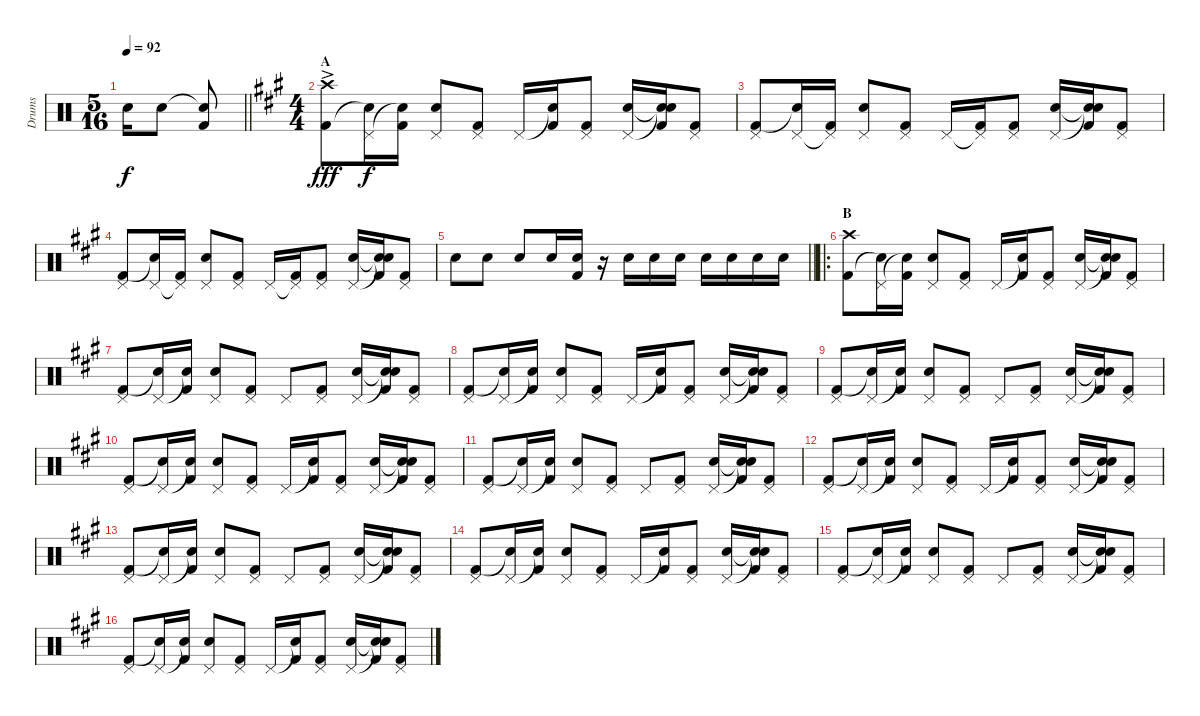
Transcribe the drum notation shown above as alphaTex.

\track ("Drums" "Drums") {instrument percussion}
\staff {score}
\articulation defaults
\ts (5 16)
\tempo 92
\clef neutral
\barLineRight lightlight
\ks c "Electric Snare (hit)".16{dy f} "Electric Snare (hit)".8
("Snare (hit)"{t} "Kick (hit) 2").8 |
\ts (4 4)
\section ("" "A")
\ks a
("Crash high (hit)"{ac} "Kick (hit) 2").8{dy fff} ("Pedal Hi-Hat (hit)" "Snare (hit)"{t}).16{dy f} ("Snare (hit)"{t} "Kick (hit) 2").16 ("Pedal Hi-Hat (hit)" "Electric Snare (hit)").8 ("Pedal Hi-Hat (hit)" "Kick (hit) 2").8 "Pedal Hi-Hat (hit)".16 ("Snare (hit)"{t} "Kick (hit) 2").16 ("Pedal Hi-Hat (hit)" "Kick (hit) 2").8 ("Pedal Hi-Hat (hit)" "Electric Snare (hit)").16 ("Snare (hit)"{t} "Snare (hit)"{t} "Kick (hit) 2").16 ("Pedal Hi-Hat (hit)" "Kick (hit) 2").8 |
("Pedal Hi-Hat (hit)" "Kick (hit) 2").8 ("Pedal Hi-Hat (hit)" "Snare (hit)"{t}).16 ("Pedal Hi-Hat (hit)"{t} "Kick (hit) 2").16 ("Pedal Hi-Hat (hit)" "Electric Snare (hit)").8 ("Pedal Hi-Hat (hit)" "Kick (hit) 2").8 "Pedal Hi-Hat (hit)".16 ("Pedal Hi-Hat (hit)"{t} "Kick (hit) 2").16 ("Pedal Hi-Hat (hit)" "Kick (hit) 2").8 ("Pedal Hi-Hat (hit)" "Electric Snare (hit)").16 ("Snare (hit)"{t} "Snare (hit)"{t} "Kick (hit) 2").16 ("Pedal Hi-Hat (hit)" "Kick (hit) 2").8 |
("Pedal Hi-Hat (hit)" "Kick (hit) 2").8 ("Pedal Hi-Hat (hit)" "Snare (hit)"{t}).16 ("Pedal Hi-Hat (hit)"{t} "Kick (hit) 2").16 ("Pedal Hi-Hat (hit)" "Electric Snare (hit)").8 ("Pedal Hi-Hat (hit)" "Kick (hit) 2").8 "Pedal Hi-Hat (hit)".16 ("Pedal Hi-Hat (hit)"{t} "Kick (hit) 2").16 ("Pedal Hi-Hat (hit)" "Kick (hit) 2").8 ("Pedal Hi-Hat (hit)" "Electric Snare (hit)").16 ("Snare (hit)"{t} "Snare (hit)"{t} "Kick (hit) 2").16 ("Pedal Hi-Hat (hit)" "Kick (hit) 2").8 |
\barLineRight lightlight "Electric Snare (hit)".8 "Electric Snare (hit)".8 "Electric Snare (hit)".8 "Electric Snare (hit)".16
("Electric Snare (hit)" "Kick (hit) 2").16 r.16 "Electric Snare (hit)".16 "Electric Snare (hit)".16 "Electric Snare (hit)".16 "Electric Snare (hit)".16 "Electric Snare (hit)".16 "Electric Snare (hit)".16 "Electric Snare (hit)".16 |
\ro
\section ("" "B")
("Crash high (hit)" "Kick (hit) 2").8 ("Pedal Hi-Hat (hit)" "Snare (hit)"{t}).16 ("Snare (hit)"{t} "Kick (hit) 2").16 ("Pedal Hi-Hat (hit)" "Electric Snare (hit)").8 ("Pedal Hi-Hat (hit)" "Kick (hit) 2").8 "Pedal Hi-Hat (hit)".16 ("Snare (hit)"{t} "Kick (hit) 2").16 ("Pedal Hi-Hat (hit)" "Kick (hit) 2").8 ("Pedal Hi-Hat (hit)" "Electric Snare (hit)").16 ("Snare (hit)"{t} "Snare (hit)"{t} "Kick (hit) 2").16 ("Pedal Hi-Hat (hit)" "Kick (hit) 2").8 |
("Pedal Hi-Hat (hit)" "Kick (hit) 2").8 ("Pedal Hi-Hat (hit)" "Snare (hit)"{t}).16 ("Snare (hit)"{t} "Kick (hit) 2").16 ("Pedal Hi-Hat (hit)" "Electric Snare (hit)").8 ("Pedal Hi-Hat (hit)" "Kick (hit) 2").8 "Pedal Hi-Hat (hit)".8 ("Pedal Hi-Hat (hit)" "Kick (hit) 2").8 ("Pedal Hi-Hat (hit)" "Electric Snare (hit)").16 ("Snare (hit)"{t} "Snare (hit)"{t} "Kick (hit) 2").16 ("Pedal Hi-Hat (hit)" "Kick (hit) 2").8 |
("Pedal Hi-Hat (hit)" "Kick (hit) 2").8 ("Pedal Hi-Hat (hit)" "Snare (hit)"{t}).16 ("Snare (hit)"{t} "Kick (hit) 2").16 ("Pedal Hi-Hat (hit)" "Electric Snare (hit)").8 ("Pedal Hi-Hat (hit)" "Kick (hit) 2").8 "Pedal Hi-Hat (hit)".16 ("Snare (hit)"{t} "Kick (hit) 2").16 ("Pedal Hi-Hat (hit)" "Kick (hit) 2").8 ("Pedal Hi-Hat (hit)" "Electric Snare (hit)").16 ("Snare (hit)"{t} "Snare (hit)"{t} "Kick (hit) 2").16 ("Pedal Hi-Hat (hit)" "Kick (hit) 2").8 |
("Pedal Hi-Hat (hit)" "Kick (hit) 2").8 ("Pedal Hi-Hat (hit)" "Snare (hit)"{t}).16 ("Snare (hit)"{t} "Kick (hit) 2").16 ("Pedal Hi-Hat (hit)" "Electric Snare (hit)").8 ("Pedal Hi-Hat (hit)" "Kick (hit) 2").8 "Pedal Hi-Hat (hit)".8 ("Pedal Hi-Hat (hit)" "Kick (hit) 2").8 ("Pedal Hi-Hat (hit)" "Electric Snare (hit)").16 ("Snare (hit)"{t} "Snare (hit)"{t} "Kick (hit) 2").16 ("Pedal Hi-Hat (hit)" "Kick (hit) 2").8 |
("Pedal Hi-Hat (hit)" "Kick (hit) 2").8 ("Pedal Hi-Hat (hit)" "Snare (hit)"{t}).16 ("Snare (hit)"{t} "Kick (hit) 2").16 ("Pedal Hi-Hat (hit)" "Electric Snare (hit)").8 ("Pedal Hi-Hat (hit)" "Kick (hit) 2").8 "Pedal Hi-Hat (hit)".16 ("Snare (hit)"{t} "Kick (hit) 2").16 ("Pedal Hi-Hat (hit)" "Kick (hit) 2").8 ("Pedal Hi-Hat (hit)" "Electric Snare (hit)").16 ("Snare (hit)"{t} "Snare (hit)"{t} "Kick (hit) 2").16 ("Pedal Hi-Hat (hit)" "Kick (hit) 2").8 |
("Pedal Hi-Hat (hit)" "Kick (hit) 2").8 ("Pedal Hi-Hat (hit)" "Snare (hit)"{t}).16 ("Snare (hit)"{t} "Kick (hit) 2").16 ("Pedal Hi-Hat (hit)" "Electric Snare (hit)").8 ("Pedal Hi-Hat (hit)" "Kick (hit) 2").8 "Pedal Hi-Hat (hit)".8 ("Pedal Hi-Hat (hit)" "Kick (hit) 2").8 ("Pedal Hi-Hat (hit)" "Electric Snare (hit)").16 ("Snare (hit)"{t} "Snare (hit)"{t} "Kick (hit) 2").16 ("Pedal Hi-Hat (hit)" "Kick (hit) 2").8 |
("Pedal Hi-Hat (hit)" "Kick (hit) 2").8 ("Pedal Hi-Hat (hit)" "Snare (hit)"{t}).16 ("Snare (hit)"{t} "Kick (hit) 2").16 ("Pedal Hi-Hat (hit)" "Electric Snare (hit)").8 ("Pedal Hi-Hat (hit)" "Kick (hit) 2").8 "Pedal Hi-Hat (hit)".16 ("Snare (hit)"{t} "Kick (hit) 2").16 ("Pedal Hi-Hat (hit)" "Kick (hit) 2").8 ("Pedal Hi-Hat (hit)" "Electric Snare (hit)").16 ("Snare (hit)"{t} "Snare (hit)"{t} "Kick (hit) 2").16 ("Pedal Hi-Hat (hit)" "Kick (hit) 2").8 |
("Pedal Hi-Hat (hit)" "Kick (hit) 2").8 ("Pedal Hi-Hat (hit)" "Snare (hit)"{t}).16 ("Snare (hit)"{t} "Kick (hit) 2").16 ("Pedal Hi-Hat (hit)" "Electric Snare (hit)").8 ("Pedal Hi-Hat (hit)" "Kick (hit) 2").8 "Pedal Hi-Hat (hit)".8 ("Pedal Hi-Hat (hit)" "Kick (hit) 2").8 ("Pedal Hi-Hat (hit)" "Electric Snare (hit)").16 ("Snare (hit)"{t} "Snare (hit)"{t} "Kick (hit) 2").16 ("Pedal Hi-Hat (hit)" "Kick (hit) 2").8 |
("Pedal Hi-Hat (hit)" "Kick (hit) 2").8 ("Pedal Hi-Hat (hit)" "Snare (hit)"{t}).16 ("Snare (hit)"{t} "Kick (hit) 2").16 ("Pedal Hi-Hat (hit)" "Electric Snare (hit)").8 ("Pedal Hi-Hat (hit)" "Kick (hit) 2").8 "Pedal Hi-Hat (hit)".16 ("Snare (hit)"{t} "Kick (hit) 2").16 ("Pedal Hi-Hat (hit)" "Kick (hit) 2").8 ("Pedal Hi-Hat (hit)" "Electric Snare (hit)").16 ("Snare (hit)"{t} "Snare (hit)"{t} "Kick (hit) 2").16 ("Pedal Hi-Hat (hit)" "Kick (hit) 2").8 |
("Pedal Hi-Hat (hit)" "Kick (hit) 2").8 ("Pedal Hi-Hat (hit)" "Snare (hit)"{t}).16 ("Snare (hit)"{t} "Kick (hit) 2").16 ("Pedal Hi-Hat (hit)" "Electric Snare (hit)").8 ("Pedal Hi-Hat (hit)" "Kick (hit) 2").8 "Pedal Hi-Hat (hit)".8 ("Pedal Hi-Hat (hit)" "Kick (hit) 2").8 ("Pedal Hi-Hat (hit)" "Electric Snare (hit)").16 ("Snare (hit)"{t} "Snare (hit)"{t} "Kick (hit) 2").16 ("Pedal Hi-Hat (hit)" "Kick (hit) 2").8 |
("Pedal Hi-Hat (hit)" "Kick (hit) 2").8 ("Pedal Hi-Hat (hit)" "Snare (hit)"{t}).16 ("Snare (hit)"{t} "Kick (hit) 2").16 ("Pedal Hi-Hat (hit)" "Electric Snare (hit)").8 ("Pedal Hi-Hat (hit)" "Kick (hit) 2").8 "Pedal Hi-Hat (hit)".16 ("Snare (hit)"{t} "Kick (hit) 2").16 ("Pedal Hi-Hat (hit)" "Kick (hit) 2").8 ("Pedal Hi-Hat (hit)" "Electric Snare (hit)").16 ("Snare (hit)"{t} "Snare (hit)"{t} "Kick (hit) 2").16 ("Pedal Hi-Hat (hit)" "Kick (hit) 2").8
